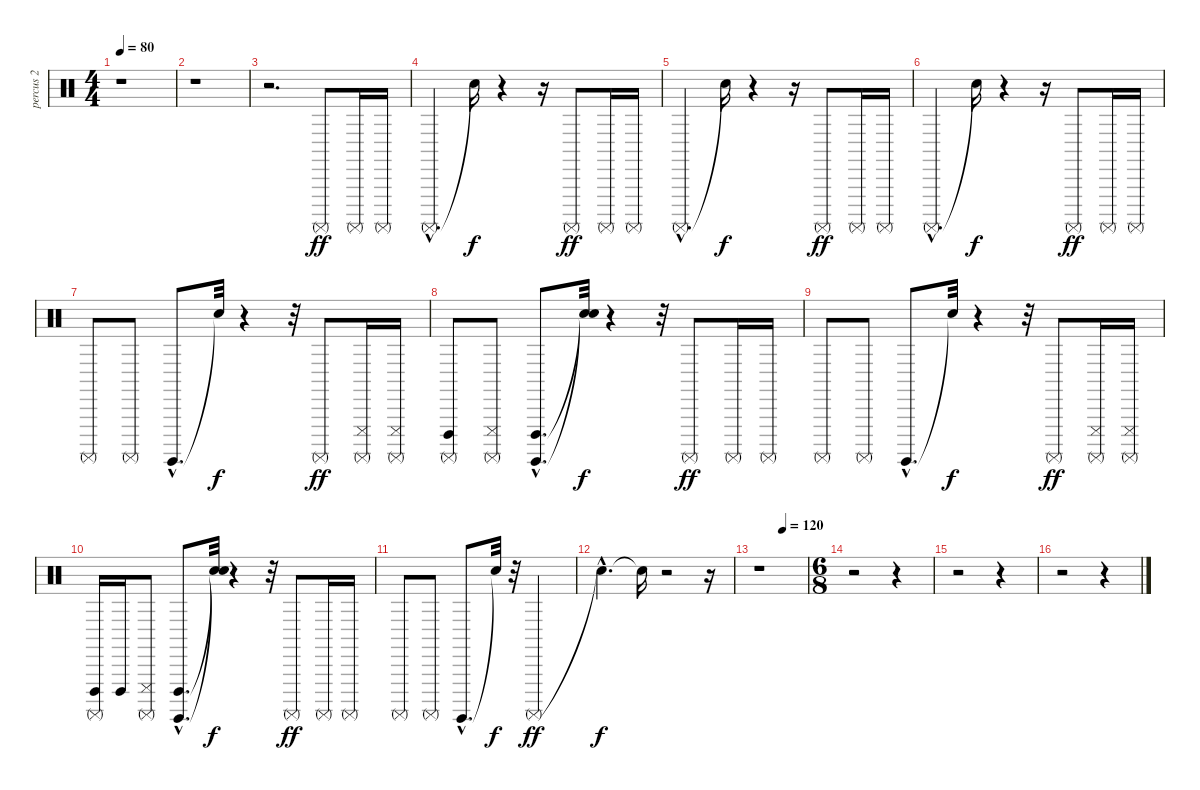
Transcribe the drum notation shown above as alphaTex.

\track ("percus 2" "percus 2") {instrument percussion}
\staff {score}
\articulation defaults
\ts (4 4)
\tempo 80
\clef neutral
\ks c
r.1{dy ff} |
r.1 |
r.2{d} "Surdo (mute)".8 "Surdo (mute)".16 "Surdo (mute)".16 |
"Surdo (mute)"{hac}.4{d} "Snare (hit)"{t}.16{dy f} r.4 r.16 "Surdo (mute)".8{dy ff} "Surdo (mute)".16 "Surdo (mute)".16 |
"Surdo (mute)"{hac}.4{d} "Snare (hit)"{t}.16{dy f} r.4 r.16 "Surdo (mute)".8{dy ff} "Surdo (mute)".16 "Surdo (mute)".16 |
"Surdo (mute)"{hac}.4{d} "Snare (hit)"{t}.16{dy f} r.4 r.16 "Surdo (mute)".8{dy ff} "Surdo (mute)".16 "Surdo (mute)".16 |
"Surdo (mute)".8 "Surdo (mute)".8 "Surdo (hit)"{hac}.8{d} "Snare (hit)"{t}.32{dy f} r.4 r.32 "Surdo (mute)".8{dy ff} ("Cuica (mute)" "Surdo (mute)").16 ("Cuica (mute)" "Surdo (mute)").16 |
("Cuica (open)" "Surdo (mute)").8 ("Cuica (mute)" "Surdo (mute)").8 ("Cuica (open)"{hac} "Surdo (hit)"{hac}).8{d} ("Snare (hit)"{t} "Snare (hit)"{t}).32{dy f} r.4 r.32 "Surdo (mute)".8{dy ff} "Surdo (mute)".16 "Surdo (mute)".16 |
"Surdo (mute)".8 "Surdo (mute)".8 "Surdo (hit)"{hac}.8{d} "Snare (hit)"{t}.32{dy f} r.4 r.32 "Surdo (mute)".8{dy ff} ("Cuica (mute)" "Surdo (mute)").16 ("Cuica (mute)" "Surdo (mute)").16 |
("Cuica (open)" "Surdo (mute)").16 "Cuica (open)".16 ("Cuica (mute)" "Surdo (mute)").8 ("Cuica (open)"{hac} "Surdo (hit)"{hac}).8{d} ("Snare (hit)"{t} "Snare (hit)"{t}).32{dy f} r.4 r.32 "Surdo (mute)".8{dy ff} "Surdo (mute)".16 "Surdo (mute)".16 |
"Surdo (mute)".8 "Surdo (mute)".8 "Surdo (hit)"{hac}.8{d} "Snare (hit)"{t}.32{dy f} r.32 "Surdo (mute)".2{dy ff} |
"Snare (hit)"{hac t}.4{d dy f} "Snare (hit)"{t}.16 r.2 r.16 |
\tempo (120 0.5)
r.1 |
\ts (6 8)
r.2 r.4 |
r.2 r.4 |
r.2 r.4
